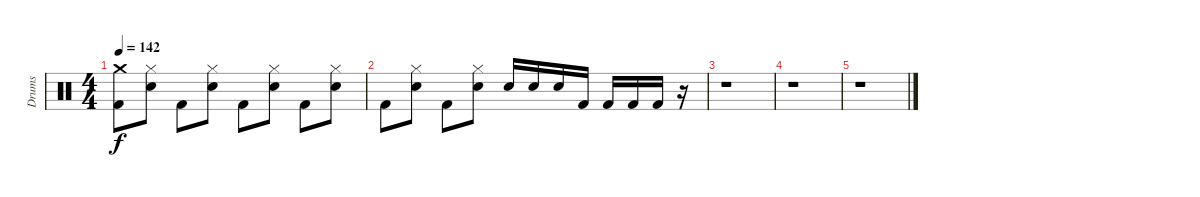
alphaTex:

\track ("Drums" "Drums") {instrument percussion}
\staff {score}
\articulation defaults
\ts (4 4)
\tempo 142
\clef neutral
\ks c
("Kick (hit) 2" "Crash medium (hit)").8{dy f} ("Snare (hit) 2" "Hi-Hat (closed)").8 "Kick (hit) 2".8 ("Snare (hit) 2" "Hi-Hat (closed)").8 "Kick (hit) 2".8 ("Snare (hit) 2" "Hi-Hat (closed)").8 "Kick (hit) 2".8 ("Snare (hit) 2" "Hi-Hat (closed)").8 |
"Kick (hit) 2".8 ("Snare (hit) 2" "Hi-Hat (closed)").8 "Kick (hit) 2".8 ("Snare (hit) 2" "Hi-Hat (closed)").8 "Snare (hit) 2".16 "Snare (hit) 2".16 "Snare (hit) 2".16 "Kick (hit) 2".16 "Kick (hit) 2".16 "Kick (hit) 2".16 "Kick (hit) 2".16 r.16 |
r.1 |
r.1 |
r.1
